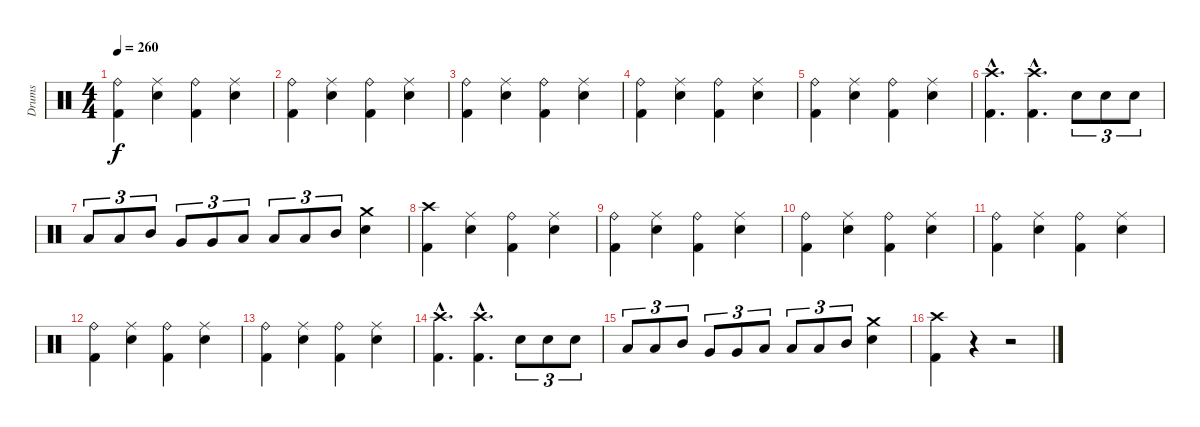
\track ("Drums" "Drums") {instrument percussion}
\staff {score}
\articulation defaults
\ts (4 4)
\tempo 260
\clef neutral
\ks c
("Ride (bell)" "Kick (hit) 2").4{dy f} ("Ride (middle)" "Electric Snare (hit)").4 ("Ride (bell)" "Kick (hit) 2").4 ("Ride (middle)" "Electric Snare (hit)").4 |
("Ride (bell)" "Kick (hit) 2").4 ("Ride (middle)" "Electric Snare (hit)").4 ("Ride (bell)" "Kick (hit) 2").4 ("Ride (middle)" "Electric Snare (hit)").4 |
("Ride (bell)" "Kick (hit) 2").4 ("Ride (middle)" "Electric Snare (hit)").4 ("Ride (bell)" "Kick (hit) 2").4 ("Ride (middle)" "Electric Snare (hit)").4 |
("Ride (bell)" "Kick (hit) 2").4 ("Ride (middle)" "Electric Snare (hit)").4 ("Ride (bell)" "Kick (hit) 2").4 ("Ride (middle)" "Electric Snare (hit)").4 |
("Ride (bell)" "Kick (hit) 2").4 ("Ride (middle)" "Electric Snare (hit)").4 ("Ride (bell)" "Kick (hit) 2").4 ("Ride (middle)" "Electric Snare (hit)").4 |
("Crash high (hit)"{hac} "Kick (hit) 2"{hac}).4{d} ("Crash high (hit)"{hac} "Kick (hit) 2"{hac}).4{d} "Electric Snare (hit)".8{tu (3 2)} "Electric Snare (hit)".8{tu (3 2)} "Electric Snare (hit)".8{tu (3 2)} |
"Low Tom (hit)".8{tu (3 2)} "Low Tom (hit)".8{tu (3 2)} "Mid Tom (hit)".8{tu (3 2)} "Very Low Tom (hit)".8{tu (3 2)} "Very Low Tom (hit)".8{tu (3 2)} "Low Tom (hit)".8{tu (3 2)} "Low Tom (hit)".8{tu (3 2)} "Low Tom (hit)".8{tu (3 2)} "Mid Tom (hit)".8{tu (3 2)} ("Crash medium (hit)" "Electric Snare (hit)").4 |
("Crash high (hit)" "Kick (hit) 2").4 ("Ride (middle)" "Electric Snare (hit)").4 ("Ride (bell)" "Kick (hit) 2").4 ("Ride (middle)" "Electric Snare (hit)").4 |
("Ride (bell)" "Kick (hit) 2").4 ("Ride (middle)" "Electric Snare (hit)").4 ("Ride (bell)" "Kick (hit) 2").4 ("Ride (middle)" "Electric Snare (hit)").4 |
("Ride (bell)" "Kick (hit) 2").4 ("Ride (middle)" "Electric Snare (hit)").4 ("Ride (bell)" "Kick (hit) 2").4 ("Ride (middle)" "Electric Snare (hit)").4 |
("Ride (bell)" "Kick (hit) 2").4 ("Ride (middle)" "Electric Snare (hit)").4 ("Ride (bell)" "Kick (hit) 2").4 ("Ride (middle)" "Electric Snare (hit)").4 |
("Ride (bell)" "Kick (hit) 2").4 ("Ride (middle)" "Electric Snare (hit)").4 ("Ride (bell)" "Kick (hit) 2").4 ("Ride (middle)" "Electric Snare (hit)").4 |
("Ride (bell)" "Kick (hit) 2").4 ("Ride (middle)" "Electric Snare (hit)").4 ("Ride (bell)" "Kick (hit) 2").4 ("Ride (middle)" "Electric Snare (hit)").4 |
("Crash high (hit)"{hac} "Kick (hit) 2"{hac}).4{d} ("Crash high (hit)"{hac} "Kick (hit) 2"{hac}).4{d} "Electric Snare (hit)".8{tu (3 2)} "Electric Snare (hit)".8{tu (3 2)} "Electric Snare (hit)".8{tu (3 2)} |
"Low Tom (hit)".8{tu (3 2)} "Low Tom (hit)".8{tu (3 2)} "Mid Tom (hit)".8{tu (3 2)} "Very Low Tom (hit)".8{tu (3 2)} "Very Low Tom (hit)".8{tu (3 2)} "Low Tom (hit)".8{tu (3 2)} "Low Tom (hit)".8{tu (3 2)} "Low Tom (hit)".8{tu (3 2)} "Mid Tom (hit)".8{tu (3 2)} ("Crash medium (hit)" "Electric Snare (hit)").4 |
("Crash high (hit)" "Kick (hit) 2").4 r.4 r.2
